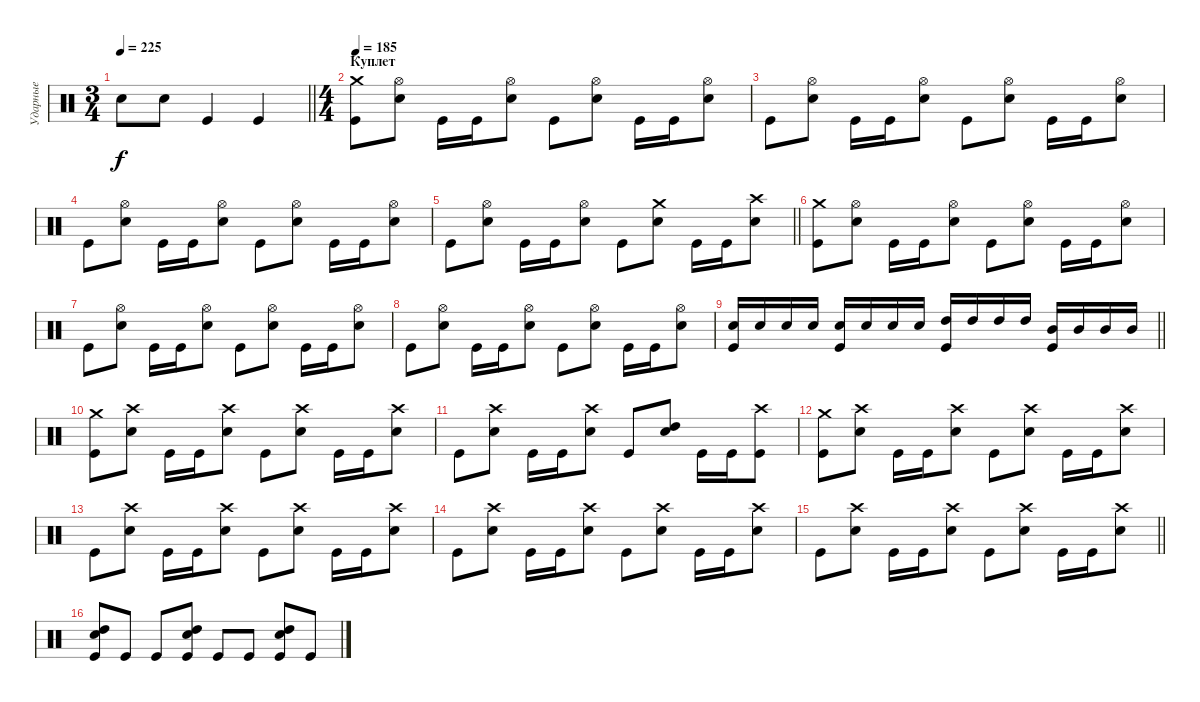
\track ("Ударные" "Ударные") {instrument percussion}
\staff {score}
\articulation defaults
\ts (3 4)
\tempo 225
\clef neutral
\barLineRight lightlight
\ks c "Electric Snare (hit)".8{dy f} "Electric Snare (hit)".8 "Kick (hit)".4 "Kick (hit)".4
|
\ts (4 4)
\section ("" "Куплет")
\tempo 185
("Crash medium (hit)" "Kick (hit)").8 ("Hi-Hat (open)" "Electric Snare (hit)").8 "Kick (hit)".16 "Kick (hit)".16 ("Hi-Hat (open)" "Electric Snare (hit)").8 "Kick (hit)".8 ("Hi-Hat (open)" "Electric Snare (hit)").8 "Kick (hit)".16 "Kick (hit)".16 ("Hi-Hat (open)" "Electric Snare (hit)").8 |
"Kick (hit)".8 ("Hi-Hat (open)" "Electric Snare (hit)").8 "Kick (hit)".16 "Kick (hit)".16 ("Hi-Hat (open)" "Electric Snare (hit)").8 "Kick (hit)".8 ("Hi-Hat (open)" "Electric Snare (hit)").8 "Kick (hit)".16 "Kick (hit)".16 ("Hi-Hat (open)" "Electric Snare (hit)").8 |
"Kick (hit)".8 ("Hi-Hat (open)" "Electric Snare (hit)").8 "Kick (hit)".16 "Kick (hit)".16 ("Hi-Hat (open)" "Electric Snare (hit)").8 "Kick (hit)".8 ("Hi-Hat (open)" "Electric Snare (hit)").8 "Kick (hit)".16 "Kick (hit)".16 ("Hi-Hat (open)" "Electric Snare (hit)").8 |
\barLineRight lightlight "Kick (hit)".8
("Hi-Hat (open)" "Electric Snare (hit)").8 "Kick (hit)".16 "Kick (hit)".16 ("Hi-Hat (open)" "Electric Snare (hit)").8 "Kick (hit)".8 ("Crash medium (hit)" "Electric Snare (hit)").8 "Kick (hit)".16 "Kick (hit)".16 ("Crash high (hit)" "Electric Snare (hit)").8 |
("Crash medium (hit)" "Kick (hit)").8 ("Hi-Hat (open)" "Electric Snare (hit)").8 "Kick (hit)".16 "Kick (hit)".16 ("Hi-Hat (open)" "Electric Snare (hit)").8 "Kick (hit)".8 ("Hi-Hat (open)" "Electric Snare (hit)").8 "Kick (hit)".16 "Kick (hit)".16 ("Hi-Hat (open)" "Electric Snare (hit)").8 |
"Kick (hit)".8 ("Hi-Hat (open)" "Electric Snare (hit)").8 "Kick (hit)".16 "Kick (hit)".16 ("Hi-Hat (open)" "Electric Snare (hit)").8 "Kick (hit)".8 ("Hi-Hat (open)" "Electric Snare (hit)").8 "Kick (hit)".16 "Kick (hit)".16 ("Hi-Hat (open)" "Electric Snare (hit)").8 |
"Kick (hit)".8 ("Hi-Hat (open)" "Electric Snare (hit)").8 "Kick (hit)".16 "Kick (hit)".16 ("Hi-Hat (open)" "Electric Snare (hit)").8 "Kick (hit)".8 ("Hi-Hat (open)" "Electric Snare (hit)").8 "Kick (hit)".16 "Kick (hit)".16 ("Hi-Hat (open)" "Electric Snare (hit)").8 |
\barLineRight lightlight
("Electric Snare (hit)" "Kick (hit)").16 "Electric Snare (hit)".16 "Electric Snare (hit)".16 "Electric Snare (hit)".16 ("Electric Snare (hit)" "Kick (hit)").16 "Electric Snare (hit)".16 "Electric Snare (hit)".16 "Electric Snare (hit)".16 ("High Tom (hit)" "Kick (hit)").16 "High Tom (hit)".16 "High Tom (hit)".16 "High Tom (hit)".16 ("Mid Tom (hit)" "Kick (hit)").16 "Mid Tom (hit)".16 "Mid Tom (hit)".16 "Mid Tom (hit)".16 |
\section ("" " ")
("Crash medium (hit)" "Kick (hit)").8 ("Crash high (hit)" "Electric Snare (hit)").8 "Kick (hit)".16 "Kick (hit)".16 ("Crash high (hit)" "Electric Snare (hit)").8 "Kick (hit)".8 ("Crash high (hit)" "Electric Snare (hit)").8 "Kick (hit)".16 "Kick (hit)".16 ("Crash high (hit)" "Electric Snare (hit)").8 |
"Kick (hit)".8 ("Crash high (hit)" "Electric Snare (hit)").8 "Kick (hit)".16 "Kick (hit)".16 ("Crash high (hit)" "Electric Snare (hit)").8 "Kick (hit)".8 ("High Tom (hit)" "Electric Snare (hit)").8 "Kick (hit)".16 "Kick (hit)".16 ("Crash high (hit)" "Kick (hit)").8 |
("Crash medium (hit)" "Kick (hit)").8 ("Crash high (hit)" "Electric Snare (hit)").8 "Kick (hit)".16 "Kick (hit)".16 ("Crash high (hit)" "Electric Snare (hit)").8 "Kick (hit)".8 ("Crash high (hit)" "Electric Snare (hit)").8 "Kick (hit)".16 "Kick (hit)".16 ("Crash high (hit)" "Electric Snare (hit)").8 |
"Kick (hit)".8 ("Crash high (hit)" "Electric Snare (hit)").8 "Kick (hit)".16 "Kick (hit)".16 ("Crash high (hit)" "Electric Snare (hit)").8 "Kick (hit)".8 ("Crash high (hit)" "Electric Snare (hit)").8 "Kick (hit)".16 "Kick (hit)".16 ("Crash high (hit)" "Electric Snare (hit)").8 |
"Kick (hit)".8 ("Crash high (hit)" "Electric Snare (hit)").8 "Kick (hit)".16 "Kick (hit)".16 ("Crash high (hit)" "Electric Snare (hit)").8 "Kick (hit)".8 ("Crash high (hit)" "Electric Snare (hit)").8 "Kick (hit)".16 "Kick (hit)".16 ("Crash high (hit)" "Electric Snare (hit)").8 |
\barLineRight lightlight "Kick (hit)".8
("Crash high (hit)" "Electric Snare (hit)").8 "Kick (hit)".16 "Kick (hit)".16 ("Crash high (hit)" "Electric Snare (hit)").8 "Kick (hit)".8 ("Crash high (hit)" "Electric Snare (hit)").8 "Kick (hit)".16 "Kick (hit)".16 ("Crash high (hit)" "Electric Snare (hit)").8 |
("High Tom (hit)" "Electric Snare (hit)" "Kick (hit)").8 "Kick (hit)".8 "Kick (hit)".8 ("High Tom (hit)" "Electric Snare (hit)" "Kick (hit)").8 "Kick (hit)".8 "Kick (hit)".8 ("High Tom (hit)" "Electric Snare (hit)" "Kick (hit)").8 "Kick (hit)".8
